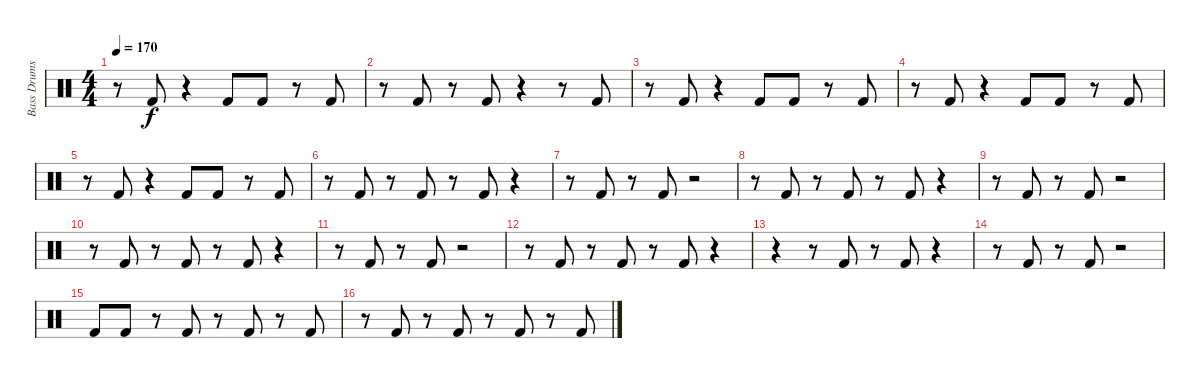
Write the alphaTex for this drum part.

\track ("Bass Drums" "Bass Drums") {instrument percussion}
\staff {score}
\articulation defaults
\ts (4 4)
\tempo 170
\clef neutral
\ks c
r.8{dy f} "Kick (hit) 2".8 r.4 "Kick (hit) 2".8 "Kick (hit) 2".8 r.8 "Kick (hit) 2".8 |
r.8 "Kick (hit) 2".8 r.8 "Kick (hit) 2".8 r.4 r.8 "Kick (hit) 2".8 |
r.8 "Kick (hit) 2".8 r.4 "Kick (hit) 2".8 "Kick (hit) 2".8 r.8 "Kick (hit) 2".8 |
r.8 "Kick (hit) 2".8 r.4 "Kick (hit) 2".8 "Kick (hit) 2".8 r.8 "Kick (hit) 2".8 |
r.8 "Kick (hit) 2".8 r.4 "Kick (hit) 2".8 "Kick (hit) 2".8 r.8 "Kick (hit) 2".8 |
r.8 "Kick (hit) 2".8 r.8 "Kick (hit) 2".8 r.8 "Kick (hit) 2".8 r.4 |
r.8 "Kick (hit) 2".8 r.8 "Kick (hit) 2".8 r.2 |
r.8 "Kick (hit) 2".8 r.8 "Kick (hit) 2".8 r.8 "Kick (hit) 2".8 r.4 |
r.8 "Kick (hit) 2".8 r.8 "Kick (hit) 2".8 r.2 |
r.8 "Kick (hit) 2".8 r.8 "Kick (hit) 2".8 r.8 "Kick (hit) 2".8 r.4 |
r.8 "Kick (hit) 2".8 r.8 "Kick (hit) 2".8 r.2 |
r.8 "Kick (hit) 2".8 r.8 "Kick (hit) 2".8 r.8 "Kick (hit) 2".8 r.4 |
r.4 r.8 "Kick (hit) 2".8 r.8 "Kick (hit) 2".8 r.4 |
r.8 "Kick (hit) 2".8 r.8 "Kick (hit) 2".8 r.2 |
"Kick (hit) 2".8 "Kick (hit) 2".8 r.8 "Kick (hit) 2".8 r.8 "Kick (hit) 2".8 r.8 "Kick (hit) 2".8 |
r.8 "Kick (hit) 2".8 r.8 "Kick (hit) 2".8 r.8 "Kick (hit) 2".8 r.8 "Kick (hit) 2".8
